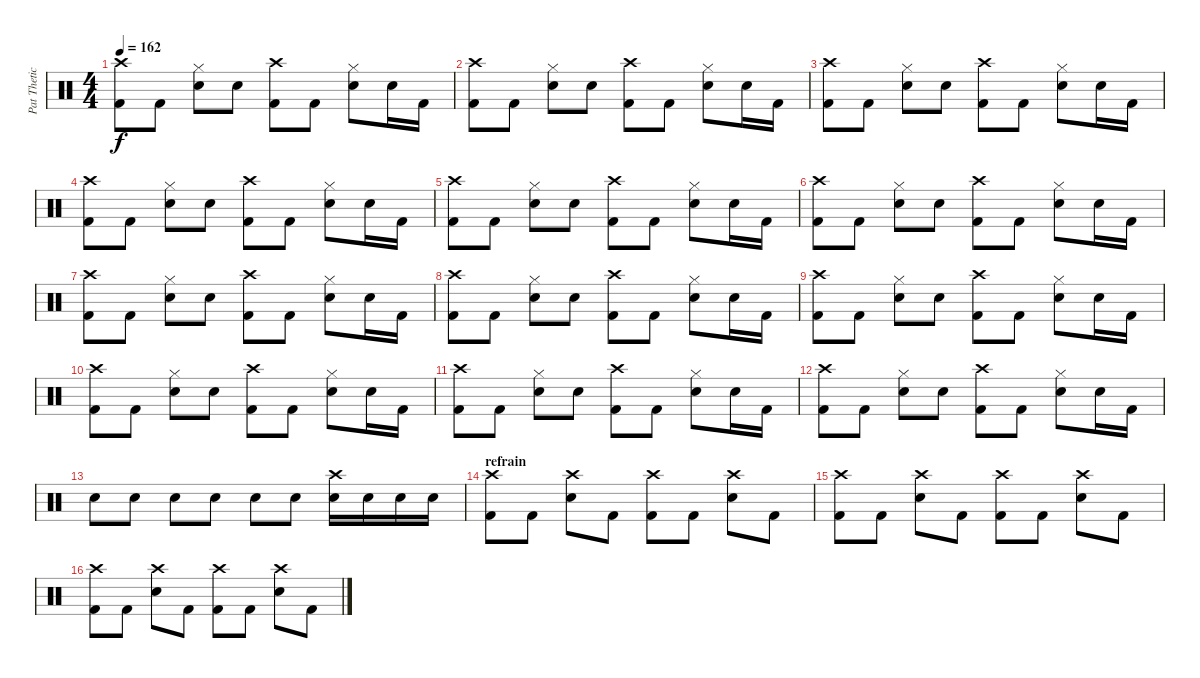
\track ("Pat Thetic" "Pat Thetic") {instrument percussion}
\staff {score}
\articulation defaults
\ts (4 4)
\tempo 162
\clef neutral
\ks c
("Crash high (hit)" "Kick (hit) 2").8{dy f} "Kick (hit) 2".8 ("Hi-Hat (closed)" "Snare (hit) 2").8 "Snare (hit) 2".8 ("Crash high (hit)" "Kick (hit) 2").8 "Kick (hit) 2".8 ("Hi-Hat (closed)" "Snare (hit) 2").8 "Snare (hit) 2".16 "Kick (hit) 2".16 |
("Crash high (hit)" "Kick (hit) 2").8 "Kick (hit) 2".8 ("Hi-Hat (closed)" "Snare (hit) 2").8 "Snare (hit) 2".8 ("Crash high (hit)" "Kick (hit) 2").8 "Kick (hit) 2".8 ("Hi-Hat (closed)" "Snare (hit) 2").8 "Snare (hit) 2".16 "Kick (hit) 2".16 |
("Crash high (hit)" "Kick (hit) 2").8 "Kick (hit) 2".8 ("Hi-Hat (closed)" "Snare (hit) 2").8 "Snare (hit) 2".8 ("Crash high (hit)" "Kick (hit) 2").8 "Kick (hit) 2".8 ("Hi-Hat (closed)" "Snare (hit) 2").8 "Snare (hit) 2".16 "Kick (hit) 2".16 |
("Crash high (hit)" "Kick (hit) 2").8 "Kick (hit) 2".8 ("Hi-Hat (closed)" "Snare (hit) 2").8 "Snare (hit) 2".8 ("Crash high (hit)" "Kick (hit) 2").8 "Kick (hit) 2".8 ("Hi-Hat (closed)" "Snare (hit) 2").8 "Snare (hit) 2".16 "Kick (hit) 2".16 |
("Crash high (hit)" "Kick (hit) 2").8 "Kick (hit) 2".8 ("Hi-Hat (closed)" "Snare (hit) 2").8 "Snare (hit) 2".8 ("Crash high (hit)" "Kick (hit) 2").8 "Kick (hit) 2".8 ("Hi-Hat (closed)" "Snare (hit) 2").8 "Snare (hit) 2".16 "Kick (hit) 2".16 |
("Crash high (hit)" "Kick (hit) 2").8 "Kick (hit) 2".8 ("Hi-Hat (closed)" "Snare (hit) 2").8 "Snare (hit) 2".8 ("Crash high (hit)" "Kick (hit) 2").8 "Kick (hit) 2".8 ("Hi-Hat (closed)" "Snare (hit) 2").8 "Snare (hit) 2".16 "Kick (hit) 2".16 |
("Crash high (hit)" "Kick (hit) 2").8 "Kick (hit) 2".8 ("Hi-Hat (closed)" "Snare (hit) 2").8 "Snare (hit) 2".8 ("Crash high (hit)" "Kick (hit) 2").8 "Kick (hit) 2".8 ("Hi-Hat (closed)" "Snare (hit) 2").8 "Snare (hit) 2".16 "Kick (hit) 2".16 |
("Crash high (hit)" "Kick (hit) 2").8 "Kick (hit) 2".8 ("Hi-Hat (closed)" "Snare (hit) 2").8 "Snare (hit) 2".8 ("Crash high (hit)" "Kick (hit) 2").8 "Kick (hit) 2".8 ("Hi-Hat (closed)" "Snare (hit) 2").8 "Snare (hit) 2".16 "Kick (hit) 2".16 |
("Crash high (hit)" "Kick (hit) 2").8 "Kick (hit) 2".8 ("Hi-Hat (closed)" "Snare (hit) 2").8 "Snare (hit) 2".8 ("Crash high (hit)" "Kick (hit) 2").8 "Kick (hit) 2".8 ("Hi-Hat (closed)" "Snare (hit) 2").8 "Snare (hit) 2".16 "Kick (hit) 2".16 |
("Crash high (hit)" "Kick (hit) 2").8 "Kick (hit) 2".8 ("Hi-Hat (closed)" "Snare (hit) 2").8 "Snare (hit) 2".8 ("Crash high (hit)" "Kick (hit) 2").8 "Kick (hit) 2".8 ("Hi-Hat (closed)" "Snare (hit) 2").8 "Snare (hit) 2".16 "Kick (hit) 2".16 |
("Crash high (hit)" "Kick (hit) 2").8 "Kick (hit) 2".8 ("Hi-Hat (closed)" "Snare (hit) 2").8 "Snare (hit) 2".8 ("Crash high (hit)" "Kick (hit) 2").8 "Kick (hit) 2".8 ("Hi-Hat (closed)" "Snare (hit) 2").8 "Snare (hit) 2".16 "Kick (hit) 2".16 |
("Crash high (hit)" "Kick (hit) 2").8 "Kick (hit) 2".8 ("Hi-Hat (closed)" "Snare (hit) 2").8 "Snare (hit) 2".8 ("Crash high (hit)" "Kick (hit) 2").8 "Kick (hit) 2".8 ("Hi-Hat (closed)" "Snare (hit) 2").8 "Snare (hit) 2".16 "Kick (hit) 2".16 |
"Snare (hit) 2".8 "Snare (hit) 2".8 "Snare (hit) 2".8 "Snare (hit) 2".8 "Snare (hit) 2".8 "Snare (hit) 2".8 ("Crash high (hit)" "Snare (hit) 2").16 "Snare (hit) 2".16 "Snare (hit) 2".16 "Snare (hit) 2".16 |
\section ("" "refrain")
("Crash high (hit)" "Kick (hit) 2").8 "Kick (hit) 2".8 ("Crash high (hit)" "Snare (hit) 2").8 "Kick (hit) 2".8 ("Crash high (hit)" "Kick (hit) 2").8 "Kick (hit) 2".8 ("Crash high (hit)" "Snare (hit) 2").8 "Kick (hit) 2".8 |
("Crash high (hit)" "Kick (hit) 2").8 "Kick (hit) 2".8 ("Crash high (hit)" "Snare (hit) 2").8 "Kick (hit) 2".8 ("Crash high (hit)" "Kick (hit) 2").8 "Kick (hit) 2".8 ("Crash high (hit)" "Snare (hit) 2").8 "Kick (hit) 2".8 |
("Crash high (hit)" "Kick (hit) 2").8 "Kick (hit) 2".8 ("Crash high (hit)" "Snare (hit) 2").8 "Kick (hit) 2".8 ("Crash high (hit)" "Kick (hit) 2").8 "Kick (hit) 2".8 ("Crash high (hit)" "Snare (hit) 2").8 "Kick (hit) 2".8
